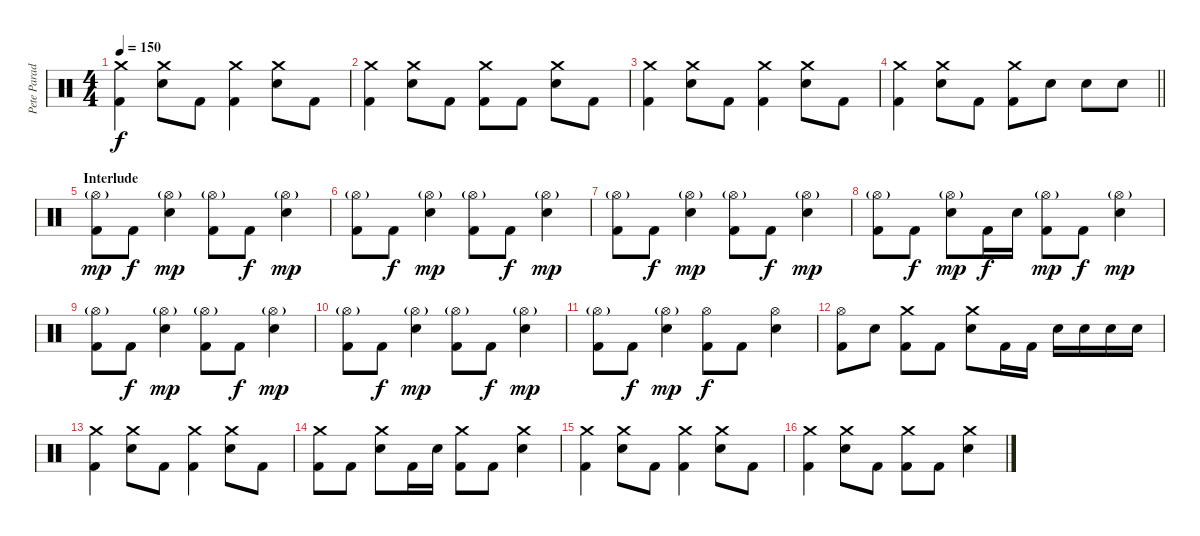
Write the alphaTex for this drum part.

\track ("Pete Parada - Drums" "Pete Parad") {instrument percussion}
\staff {score}
\articulation defaults
\ts (4 4)
\tempo 150
\clef neutral
\ks c
("Crash medium (hit)" "Kick (hit) 2").4{dy f} ("Crash medium (hit)" "Electric Snare (hit)").8 "Kick (hit) 2".8 ("Crash medium (hit)" "Kick (hit) 2").4 ("Crash medium (hit)" "Electric Snare (hit)").8 "Kick (hit) 2".8 |
("Crash medium (hit)" "Kick (hit) 2").4 ("Crash medium (hit)" "Electric Snare (hit)").8 "Kick (hit) 2".8 ("Crash medium (hit)" "Kick (hit) 2").8 "Kick (hit) 2".8 ("Crash medium (hit)" "Electric Snare (hit)").8 "Kick (hit) 2".8 |
("Crash medium (hit)" "Kick (hit) 2").4 ("Crash medium (hit)" "Electric Snare (hit)").8 "Kick (hit) 2".8 ("Crash medium (hit)" "Kick (hit) 2").4 ("Crash medium (hit)" "Electric Snare (hit)").8 "Kick (hit) 2".8 |
\barLineRight lightlight
("Crash medium (hit)" "Kick (hit) 2").4 ("Crash medium (hit)" "Electric Snare (hit)").8 "Kick (hit) 2".8 ("Crash medium (hit)" "Kick (hit) 2").8 "Electric Snare (hit)".8 "Electric Snare (hit)".8 "Electric Snare (hit)".8 |
\section ("" "Interlude")
("Hi-Hat (open)"{g} "Kick (hit) 2").8{dy mp} "Kick (hit) 2".8{dy f} ("Hi-Hat (open)"{g} "Electric Snare (hit)").4{dy mp} ("Hi-Hat (open)"{g} "Kick (hit) 2").8 "Kick (hit) 2".8{dy f} ("Hi-Hat (open)"{g} "Electric Snare (hit)").4{dy mp} |
("Hi-Hat (open)"{g} "Kick (hit) 2").8 "Kick (hit) 2".8{dy f} ("Hi-Hat (open)"{g} "Electric Snare (hit)").4{dy mp} ("Hi-Hat (open)"{g} "Kick (hit) 2").8 "Kick (hit) 2".8{dy f} ("Hi-Hat (open)"{g} "Electric Snare (hit)").4{dy mp} |
("Hi-Hat (open)"{g} "Kick (hit) 2").8 "Kick (hit) 2".8{dy f} ("Hi-Hat (open)"{g} "Electric Snare (hit)").4{dy mp} ("Hi-Hat (open)"{g} "Kick (hit) 2").8 "Kick (hit) 2".8{dy f} ("Hi-Hat (open)"{g} "Electric Snare (hit)").4{dy mp} |
("Hi-Hat (open)"{g} "Kick (hit) 2").8 "Kick (hit) 2".8{dy f} ("Hi-Hat (open)"{g} "Electric Snare (hit)").8{dy mp} "Kick (hit) 2".16{dy f} "Electric Snare (hit)".16 ("Hi-Hat (open)"{g} "Kick (hit) 2").8{dy mp} "Kick (hit) 2".8{dy f} ("Hi-Hat (open)"{g} "Electric Snare (hit)").4{dy mp} |
("Hi-Hat (open)"{g} "Kick (hit) 2").8 "Kick (hit) 2".8{dy f} ("Hi-Hat (open)"{g} "Electric Snare (hit)").4{dy mp} ("Hi-Hat (open)"{g} "Kick (hit) 2").8 "Kick (hit) 2".8{dy f} ("Hi-Hat (open)"{g} "Electric Snare (hit)").4{dy mp} |
("Hi-Hat (open)"{g} "Kick (hit) 2").8 "Kick (hit) 2".8{dy f} ("Hi-Hat (open)"{g} "Electric Snare (hit)").4{dy mp} ("Hi-Hat (open)"{g} "Kick (hit) 2").8 "Kick (hit) 2".8{dy f} ("Hi-Hat (open)"{g} "Electric Snare (hit)").4{dy mp} |
("Hi-Hat (open)"{g} "Kick (hit) 2").8 "Kick (hit) 2".8{dy f} ("Hi-Hat (open)"{g} "Electric Snare (hit)").4{dy mp} ("Hi-Hat (open)" "Kick (hit) 2").8{dy f} "Kick (hit) 2".8 ("Hi-Hat (open)" "Electric Snare (hit)").4 |
("Hi-Hat (open)" "Kick (hit) 2").8 "Electric Snare (hit)".8 ("Crash medium (hit)" "Kick (hit) 2").8 "Kick (hit) 2".8 ("Crash medium (hit)" "Electric Snare (hit)").8 "Kick (hit) 2".16 "Kick (hit) 2".16 "Electric Snare (hit)".16 "Electric Snare (hit)".16 "Electric Snare (hit)".16 "Electric Snare (hit)".16 |
("Crash medium (hit)" "Kick (hit) 2").4 ("Crash medium (hit)" "Electric Snare (hit)").8 "Kick (hit) 2".8 ("Crash medium (hit)" "Kick (hit) 2").4 ("Crash medium (hit)" "Electric Snare (hit)").8 "Kick (hit) 2".8 |
("Crash medium (hit)" "Kick (hit) 2").8 "Kick (hit) 2".8 ("Crash medium (hit)" "Electric Snare (hit)").8 "Kick (hit) 2".16 "Electric Snare (hit)".16 ("Crash medium (hit)" "Kick (hit) 2").8 "Kick (hit) 2".8 ("Crash medium (hit)" "Electric Snare (hit)").4 |
("Crash medium (hit)" "Kick (hit) 2").4 ("Crash medium (hit)" "Electric Snare (hit)").8 "Kick (hit) 2".8 ("Crash medium (hit)" "Kick (hit) 2").4 ("Crash medium (hit)" "Electric Snare (hit)").8 "Kick (hit) 2".8 |
("Crash medium (hit)" "Kick (hit) 2").4 ("Crash medium (hit)" "Electric Snare (hit)").8 "Kick (hit) 2".8 ("Crash medium (hit)" "Kick (hit) 2").8 "Kick (hit) 2".8 ("Crash medium (hit)" "Electric Snare (hit)").4
